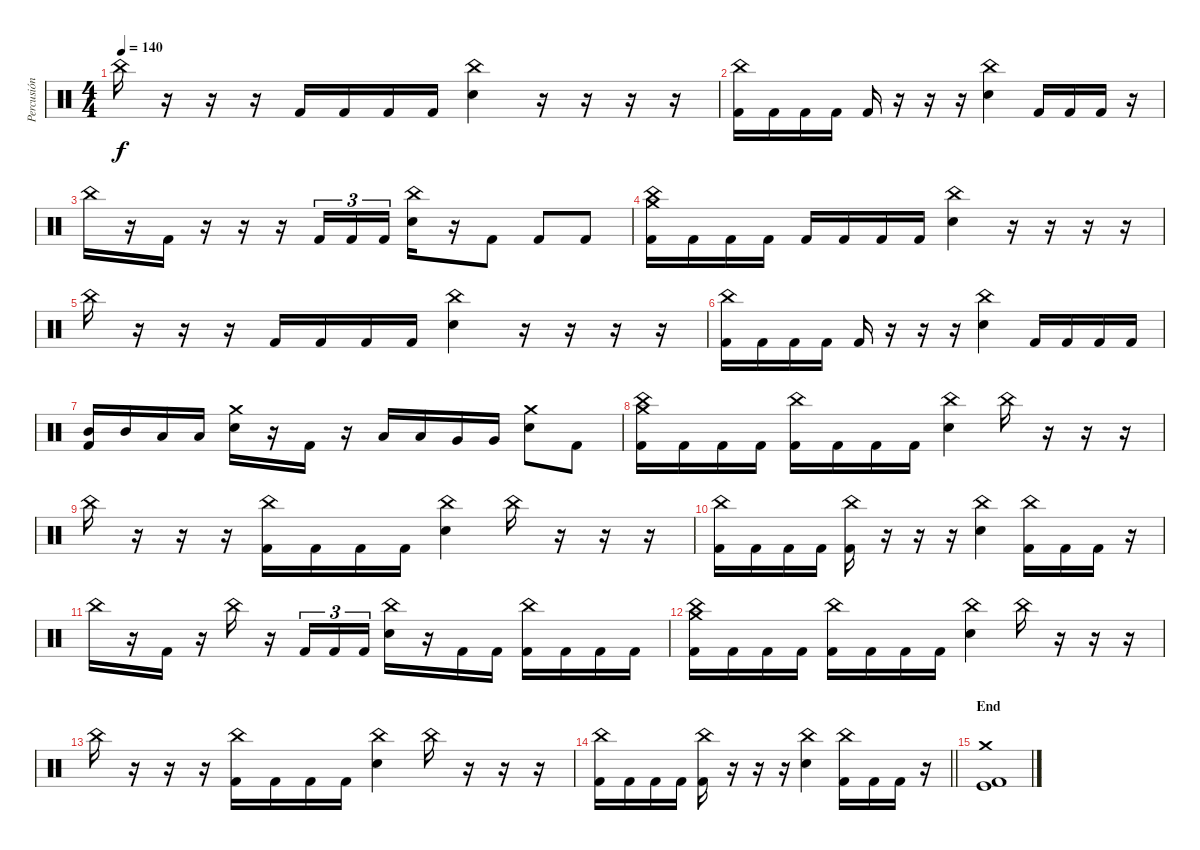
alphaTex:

\track ("Percusión" "Percusión") {instrument percussion}
\staff {score}
\articulation defaults
\ts (4 4)
\tempo 140
\clef neutral
\ks c "China (hit)".16{dy f}
r.16 r.16 r.16 "Kick (hit) 2".16 "Kick (hit) 2".16 "Kick (hit) 2".16 "Kick (hit) 2".16 ("China (hit)" "Electric Snare (hit)").4 r.16 r.16 r.16 r.16 |
("China (hit)" "Kick (hit) 2").16 "Kick (hit) 2".16 "Kick (hit) 2".16 "Kick (hit) 2".16 "Kick (hit) 2".16 r.16 r.16 r.16 ("China (hit)" "Electric Snare (hit)").4 "Kick (hit) 2".16 "Kick (hit) 2".16 "Kick (hit) 2".16 r.16 |
"China (hit)".16 r.16 "Kick (hit) 2".16 r.16 r.16 r.16 "Kick (hit) 2".16{tu (3 2)} "Kick (hit) 2".16{tu (3 2)} "Kick (hit) 2".16{tu (3 2)} ("China (hit)" "Electric Snare (hit)").16 r.16 "Kick (hit) 2".8 "Kick (hit) 2".8 "Kick (hit) 2".8 |
("Crash medium (hit)" "China (hit)" "Kick (hit) 2").16 "Kick (hit) 2".16 "Kick (hit) 2".16 "Kick (hit) 2".16 "Kick (hit) 2".16 "Kick (hit) 2".16 "Kick (hit) 2".16 "Kick (hit) 2".16 ("China (hit)" "Electric Snare (hit)").4 r.16 r.16 r.16 r.16 |
"China (hit)".16 r.16 r.16 r.16 "Kick (hit) 2".16 "Kick (hit) 2".16 "Kick (hit) 2".16 "Kick (hit) 2".16 ("China (hit)" "Electric Snare (hit)").4 r.16 r.16 r.16 r.16 |
("China (hit)" "Kick (hit) 2").16 "Kick (hit) 2".16 "Kick (hit) 2".16 "Kick (hit) 2".16 "Kick (hit) 2".16 r.16 r.16 r.16 ("China (hit)" "Electric Snare (hit)").4 "Kick (hit) 2".16 "Kick (hit) 2".16 "Kick (hit) 2".16 "Kick (hit) 2".16 |
("Mid Tom (hit)" "Kick (hit) 2").16 "Mid Tom (hit)".16 "Low Tom (hit)".16 "Low Tom (hit)".16 ("Crash medium (hit)" "Electric Snare (hit)").16 r.16 "Kick (hit) 2".16 r.16 "Low Tom (hit)".16 "Low Tom (hit)".16 "Very Low Tom (hit)".16 "Very Low Tom (hit)".16 ("Crash medium (hit)" "Electric Snare (hit)").8 "Kick (hit) 2".8 |
("Crash medium (hit)" "China (hit)" "Kick (hit) 2").16 "Kick (hit) 2".16 "Kick (hit) 2".16 "Kick (hit) 2".16 ("China (hit)" "Kick (hit) 2").16 "Kick (hit) 2".16 "Kick (hit) 2".16 "Kick (hit) 2".16 ("China (hit)" "Electric Snare (hit)").4 "China (hit)".16 r.16 r.16 r.16 |
"China (hit)".16 r.16 r.16 r.16 ("China (hit)" "Kick (hit) 2").16 "Kick (hit) 2".16 "Kick (hit) 2".16 "Kick (hit) 2".16 ("China (hit)" "Electric Snare (hit)").4 "China (hit)".16 r.16 r.16 r.16 |
("China (hit)" "Kick (hit) 2").16 "Kick (hit) 2".16 "Kick (hit) 2".16 "Kick (hit) 2".16 ("China (hit)" "Kick (hit) 2").16 r.16 r.16 r.16 ("China (hit)" "Electric Snare (hit)").4 ("China (hit)" "Kick (hit) 2").16 "Kick (hit) 2".16 "Kick (hit) 2".16 r.16 |
"China (hit)".16 r.16 "Kick (hit) 2".16 r.16 "China (hit)".16 r.16 "Kick (hit) 2".16{tu (3 2)} "Kick (hit) 2".16{tu (3 2)} "Kick (hit) 2".16{tu (3 2)} ("China (hit)" "Electric Snare (hit)").16 r.16 "Kick (hit) 2".16 "Kick (hit) 2".16 ("China (hit)" "Kick (hit) 2").16 "Kick (hit) 2".16 "Kick (hit) 2".16 "Kick (hit) 2".16 |
("Crash medium (hit)" "China (hit)" "Kick (hit) 2").16 "Kick (hit) 2".16 "Kick (hit) 2".16 "Kick (hit) 2".16 ("China (hit)" "Kick (hit) 2").16 "Kick (hit) 2".16 "Kick (hit) 2".16 "Kick (hit) 2".16 ("China (hit)" "Electric Snare (hit)").4 "China (hit)".16 r.16 r.16 r.16 |
"China (hit)".16 r.16 r.16 r.16 ("China (hit)" "Kick (hit) 2").16 "Kick (hit) 2".16 "Kick (hit) 2".16 "Kick (hit) 2".16 ("China (hit)" "Electric Snare (hit)").4 "China (hit)".16 r.16 r.16 r.16 |
\barLineRight lightlight
("China (hit)" "Kick (hit) 2").16 "Kick (hit) 2".16 "Kick (hit) 2".16 "Kick (hit) 2".16 ("China (hit)" "Kick (hit) 2").16 r.16 r.16 r.16 ("China (hit)" "Electric Snare (hit)").4 ("China (hit)" "Kick (hit) 2").16 "Kick (hit) 2".16 "Kick (hit) 2".16 r.16 |
\section ("" "End")
("Crash medium (hit)" "Kick (hit)" "Kick (hit) 2").1
